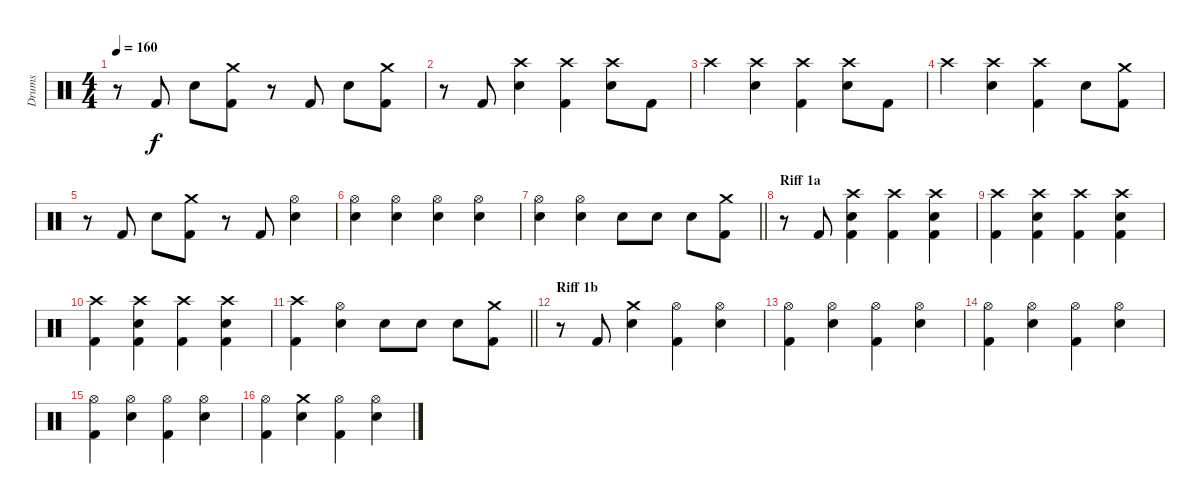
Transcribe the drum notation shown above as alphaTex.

\track ("Drums" "Drums") {instrument percussion}
\staff {score}
\articulation defaults
\ts (4 4)
\tempo 160
\clef neutral
\ks c
r.8{dy f} "Kick (hit) 2".8 "Electric Snare (hit)".8 ("Kick (hit) 2" "Crash medium (hit)").8 r.8 "Kick (hit) 2".8 "Electric Snare (hit)".8 ("Kick (hit) 2" "Crash medium (hit)").8 |
r.8 "Kick (hit) 2".8 ("Crash high (hit)" "Electric Snare (hit)").4 ("Crash high (hit)" "Kick (hit) 2").4 ("Crash high (hit)" "Electric Snare (hit)").8 "Kick (hit) 2".8 |
"Crash high (hit)".4 ("Crash high (hit)" "Electric Snare (hit)").4 ("Crash high (hit)" "Kick (hit) 2").4 ("Crash high (hit)" "Electric Snare (hit)").8 "Kick (hit) 2".8 |
"Crash high (hit)".4 ("Crash high (hit)" "Electric Snare (hit)").4 ("Crash high (hit)" "Kick (hit) 2").4 "Electric Snare (hit)".8 ("Kick (hit) 2" "Crash medium (hit)").8 |
r.8 "Kick (hit) 2".8 "Electric Snare (hit)".8 ("Kick (hit) 2" "Crash medium (hit)").8 r.8 "Kick (hit) 2".8 ("Electric Snare (hit)" "Hi-Hat (open)").4 |
("Hi-Hat (open)" "Electric Snare (hit)").4 ("Hi-Hat (open)" "Electric Snare (hit)").4 ("Hi-Hat (open)" "Electric Snare (hit)").4 ("Hi-Hat (open)" "Electric Snare (hit)").4 |
\barLineRight lightlight
("Hi-Hat (open)" "Electric Snare (hit)").4 ("Hi-Hat (open)" "Electric Snare (hit)").4 "Electric Snare (hit)".8 "Electric Snare (hit)".8 "Electric Snare (hit)".8 ("Kick (hit) 2" "Crash medium (hit)").8 |
\section ("" "Riff 1a")
r.8 "Kick (hit) 2".8 ("Kick (hit) 2" "Electric Snare (hit)" "Crash high (hit)").4 ("Kick (hit) 2" "Crash high (hit)").4 ("Kick (hit) 2" "Electric Snare (hit)" "Crash high (hit)").4 |
("Kick (hit) 2" "Crash high (hit)").4 ("Kick (hit) 2" "Electric Snare (hit)" "Crash high (hit)").4 ("Kick (hit) 2" "Crash high (hit)").4 ("Kick (hit) 2" "Electric Snare (hit)" "Crash high (hit)").4 |
("Kick (hit) 2" "Crash high (hit)").4 ("Kick (hit) 2" "Electric Snare (hit)" "Crash high (hit)").4 ("Kick (hit) 2" "Crash high (hit)").4 ("Kick (hit) 2" "Electric Snare (hit)" "Crash high (hit)").4 |
\barLineRight lightlight
("Kick (hit) 2" "Crash high (hit)").4 ("Electric Snare (hit)" "Hi-Hat (open)").4 "Electric Snare (hit)".8 "Electric Snare (hit)".8 "Electric Snare (hit)".8 ("Kick (hit) 2" "Crash medium (hit)").8 |
\section ("" "Riff 1b")
r.8 "Kick (hit) 2".8 ("Crash medium (hit)" "Electric Snare (hit)").4 ("Kick (hit) 2" "Hi-Hat (open)").4 ("Electric Snare (hit)" "Hi-Hat (open)").4 |
("Kick (hit) 2" "Hi-Hat (open)").4 ("Electric Snare (hit)" "Hi-Hat (open)").4 ("Kick (hit) 2" "Hi-Hat (open)").4 ("Electric Snare (hit)" "Hi-Hat (open)").4 |
("Kick (hit) 2" "Hi-Hat (open)").4 ("Electric Snare (hit)" "Hi-Hat (open)").4 ("Kick (hit) 2" "Hi-Hat (open)").4 ("Electric Snare (hit)" "Hi-Hat (open)").4 |
("Kick (hit) 2" "Hi-Hat (open)").4 ("Electric Snare (hit)" "Hi-Hat (open)").4 ("Kick (hit) 2" "Hi-Hat (open)").4 ("Electric Snare (hit)" "Hi-Hat (open)").4 |
("Kick (hit) 2" "Hi-Hat (open)").4 ("Electric Snare (hit)" "Crash medium (hit)").4 ("Kick (hit) 2" "Hi-Hat (open)").4 ("Electric Snare (hit)" "Hi-Hat (open)").4
